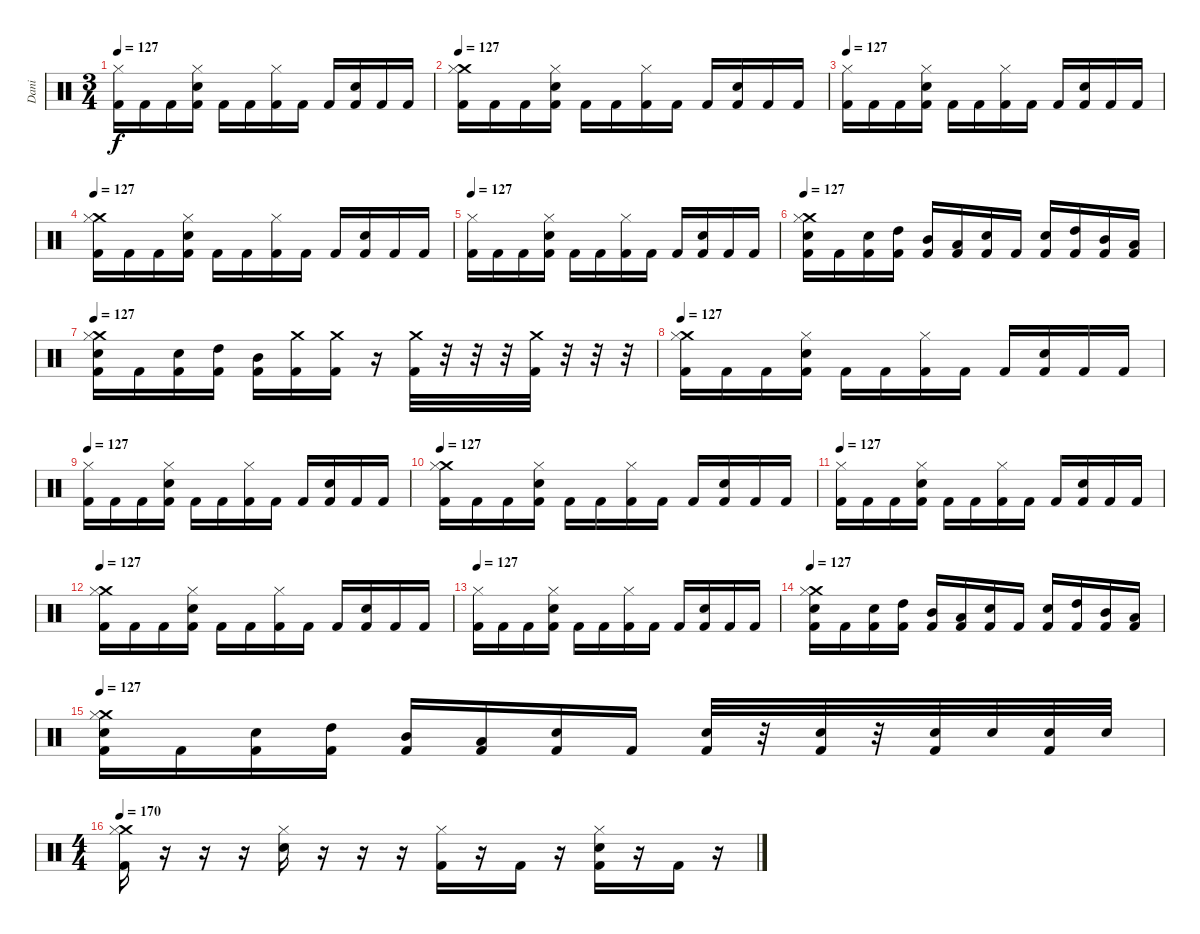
\track ("Dani" "Dani") {instrument percussion}
\staff {score}
\articulation defaults
\ts (3 4)
\tempo 127
\clef neutral
\ks c
("Hi-Hat (closed)" "Kick (hit) 2").16{dy f} "Kick (hit) 2".16 "Kick (hit) 2".16 ("Hi-Hat (closed)" "Electric Snare (hit)" "Kick (hit) 2").16 "Kick (hit) 2".16 "Kick (hit) 2".16 ("Hi-Hat (closed)" "Kick (hit) 2").16 "Kick (hit) 2".16 "Kick (hit) 2".16 ("Electric Snare (hit)" "Kick (hit) 2").16 "Kick (hit) 2".16 "Kick (hit) 2".16 |
\tempo 127
("Crash medium (hit)" "Hi-Hat (closed)" "Kick (hit) 2").16 "Kick (hit) 2".16 "Kick (hit) 2".16 ("Hi-Hat (closed)" "Electric Snare (hit)" "Kick (hit) 2").16 "Kick (hit) 2".16 "Kick (hit) 2".16 ("Hi-Hat (closed)" "Kick (hit) 2").16 "Kick (hit) 2".16 "Kick (hit) 2".16 ("Electric Snare (hit)" "Kick (hit) 2").16 "Kick (hit) 2".16 "Kick (hit) 2".16 |
\tempo 127
("Hi-Hat (closed)" "Kick (hit) 2").16 "Kick (hit) 2".16 "Kick (hit) 2".16 ("Hi-Hat (closed)" "Electric Snare (hit)" "Kick (hit) 2").16 "Kick (hit) 2".16 "Kick (hit) 2".16 ("Hi-Hat (closed)" "Kick (hit) 2").16 "Kick (hit) 2".16 "Kick (hit) 2".16 ("Electric Snare (hit)" "Kick (hit) 2").16 "Kick (hit) 2".16 "Kick (hit) 2".16 |
\tempo 127
("Crash medium (hit)" "Hi-Hat (closed)" "Kick (hit) 2").16 "Kick (hit) 2".16 "Kick (hit) 2".16 ("Hi-Hat (closed)" "Electric Snare (hit)" "Kick (hit) 2").16 "Kick (hit) 2".16 "Kick (hit) 2".16 ("Hi-Hat (closed)" "Kick (hit) 2").16 "Kick (hit) 2".16 "Kick (hit) 2".16 ("Electric Snare (hit)" "Kick (hit) 2").16 "Kick (hit) 2".16 "Kick (hit) 2".16 |
\tempo 127
("Hi-Hat (closed)" "Kick (hit) 2").16 "Kick (hit) 2".16 "Kick (hit) 2".16 ("Hi-Hat (closed)" "Electric Snare (hit)" "Kick (hit) 2").16 "Kick (hit) 2".16 "Kick (hit) 2".16 ("Hi-Hat (closed)" "Kick (hit) 2").16 "Kick (hit) 2".16 "Kick (hit) 2".16 ("Electric Snare (hit)" "Kick (hit) 2").16 "Kick (hit) 2".16 "Kick (hit) 2".16 |
\tempo 127
("Crash medium (hit)" "Hi-Hat (closed)" "Electric Snare (hit)" "Kick (hit) 2").16 "Kick (hit) 2".16 ("Electric Snare (hit)" "Kick (hit) 2").16 ("High Tom (hit)" "Kick (hit) 2").16 ("Mid Tom (hit)" "Kick (hit) 2").16 ("Low Tom (hit)" "Kick (hit) 2").16 ("Electric Snare (hit)" "Kick (hit) 2").16 "Kick (hit) 2".16 ("Electric Snare (hit)" "Kick (hit) 2").16 ("High Tom (hit)" "Kick (hit) 2").16 ("Mid Tom (hit)" "Kick (hit) 2").16 ("Low Tom (hit)" "Kick (hit) 2").16 |
\tempo 127
("Crash medium (hit)" "Hi-Hat (closed)" "Electric Snare (hit)" "Kick (hit) 2").16 "Kick (hit) 2".16 ("Electric Snare (hit)" "Kick (hit) 2").16 ("High Tom (hit)" "Kick (hit) 2").16 ("Mid Tom (hit)" "Kick (hit) 2").16 ("Crash medium (hit)" "Kick (hit) 2").16 ("Crash medium (hit)" "Kick (hit) 2").16 r.16 ("Crash medium (hit)" "Kick (hit) 2").32 r.32 r.32 r.32 ("Crash medium (hit)" "Kick (hit) 2").32 r.32 r.32 r.32 |
\tempo 127
("Crash medium (hit)" "Hi-Hat (closed)" "Kick (hit) 2").16 "Kick (hit) 2".16 "Kick (hit) 2".16 ("Hi-Hat (closed)" "Electric Snare (hit)" "Kick (hit) 2").16 "Kick (hit) 2".16 "Kick (hit) 2".16 ("Hi-Hat (closed)" "Kick (hit) 2").16 "Kick (hit) 2".16 "Kick (hit) 2".16 ("Electric Snare (hit)" "Kick (hit) 2").16 "Kick (hit) 2".16 "Kick (hit) 2".16 |
\tempo 127
("Hi-Hat (closed)" "Kick (hit) 2").16 "Kick (hit) 2".16 "Kick (hit) 2".16 ("Hi-Hat (closed)" "Electric Snare (hit)" "Kick (hit) 2").16 "Kick (hit) 2".16 "Kick (hit) 2".16 ("Hi-Hat (closed)" "Kick (hit) 2").16 "Kick (hit) 2".16 "Kick (hit) 2".16 ("Electric Snare (hit)" "Kick (hit) 2").16 "Kick (hit) 2".16 "Kick (hit) 2".16 |
\tempo 127
("Crash medium (hit)" "Hi-Hat (closed)" "Kick (hit) 2").16 "Kick (hit) 2".16 "Kick (hit) 2".16 ("Hi-Hat (closed)" "Electric Snare (hit)" "Kick (hit) 2").16 "Kick (hit) 2".16 "Kick (hit) 2".16 ("Hi-Hat (closed)" "Kick (hit) 2").16 "Kick (hit) 2".16 "Kick (hit) 2".16 ("Electric Snare (hit)" "Kick (hit) 2").16 "Kick (hit) 2".16 "Kick (hit) 2".16 |
\tempo 127
("Hi-Hat (closed)" "Kick (hit) 2").16 "Kick (hit) 2".16 "Kick (hit) 2".16 ("Hi-Hat (closed)" "Electric Snare (hit)" "Kick (hit) 2").16 "Kick (hit) 2".16 "Kick (hit) 2".16 ("Hi-Hat (closed)" "Kick (hit) 2").16 "Kick (hit) 2".16 "Kick (hit) 2".16 ("Electric Snare (hit)" "Kick (hit) 2").16 "Kick (hit) 2".16 "Kick (hit) 2".16 |
\tempo 127
("Crash medium (hit)" "Hi-Hat (closed)" "Kick (hit) 2").16 "Kick (hit) 2".16 "Kick (hit) 2".16 ("Hi-Hat (closed)" "Electric Snare (hit)" "Kick (hit) 2").16 "Kick (hit) 2".16 "Kick (hit) 2".16 ("Hi-Hat (closed)" "Kick (hit) 2").16 "Kick (hit) 2".16 "Kick (hit) 2".16 ("Electric Snare (hit)" "Kick (hit) 2").16 "Kick (hit) 2".16 "Kick (hit) 2".16 |
\tempo 127
("Hi-Hat (closed)" "Kick (hit) 2").16 "Kick (hit) 2".16 "Kick (hit) 2".16 ("Hi-Hat (closed)" "Electric Snare (hit)" "Kick (hit) 2").16 "Kick (hit) 2".16 "Kick (hit) 2".16 ("Hi-Hat (closed)" "Kick (hit) 2").16 "Kick (hit) 2".16 "Kick (hit) 2".16 ("Electric Snare (hit)" "Kick (hit) 2").16 "Kick (hit) 2".16 "Kick (hit) 2".16 |
\tempo 127
("Crash medium (hit)" "Hi-Hat (closed)" "Electric Snare (hit)" "Kick (hit) 2").16 "Kick (hit) 2".16 ("Electric Snare (hit)" "Kick (hit) 2").16 ("High Tom (hit)" "Kick (hit) 2").16 ("Mid Tom (hit)" "Kick (hit) 2").16 ("Low Tom (hit)" "Kick (hit) 2").16 ("Electric Snare (hit)" "Kick (hit) 2").16 "Kick (hit) 2".16 ("Electric Snare (hit)" "Kick (hit) 2").16 ("High Tom (hit)" "Kick (hit) 2").16 ("Mid Tom (hit)" "Kick (hit) 2").16 ("Low Tom (hit)" "Kick (hit) 2").16 |
\tempo 127
("Crash medium (hit)" "Hi-Hat (closed)" "Electric Snare (hit)" "Kick (hit) 2").16 "Kick (hit) 2".16 ("Electric Snare (hit)" "Kick (hit) 2").16 ("High Tom (hit)" "Kick (hit) 2").16 ("Mid Tom (hit)" "Kick (hit) 2").16 ("Low Tom (hit)" "Kick (hit) 2").16 ("Electric Snare (hit)" "Kick (hit) 2").16 "Kick (hit) 2".16 ("Electric Snare (hit)" "Kick (hit) 2").32 r.32 ("Electric Snare (hit)" "Kick (hit) 2").32 r.32 ("Electric Snare (hit)" "Kick (hit) 2").32 "Electric Snare (hit)".32 ("Electric Snare (hit)" "Kick (hit) 2").32 "Electric Snare (hit)".32 |
\ts (4 4)
\tempo 170
("Crash medium (hit)" "Hi-Hat (closed)" "Kick (hit) 2").16 r.16 r.16 r.16 ("Hi-Hat (closed)" "Electric Snare (hit)").16 r.16 r.16 r.16 ("Hi-Hat (closed)" "Kick (hit) 2").16 r.16 "Kick (hit) 2".16 r.16 ("Hi-Hat (closed)" "Electric Snare (hit)" "Kick (hit) 2").16 r.16 "Kick (hit) 2".16 r.16
